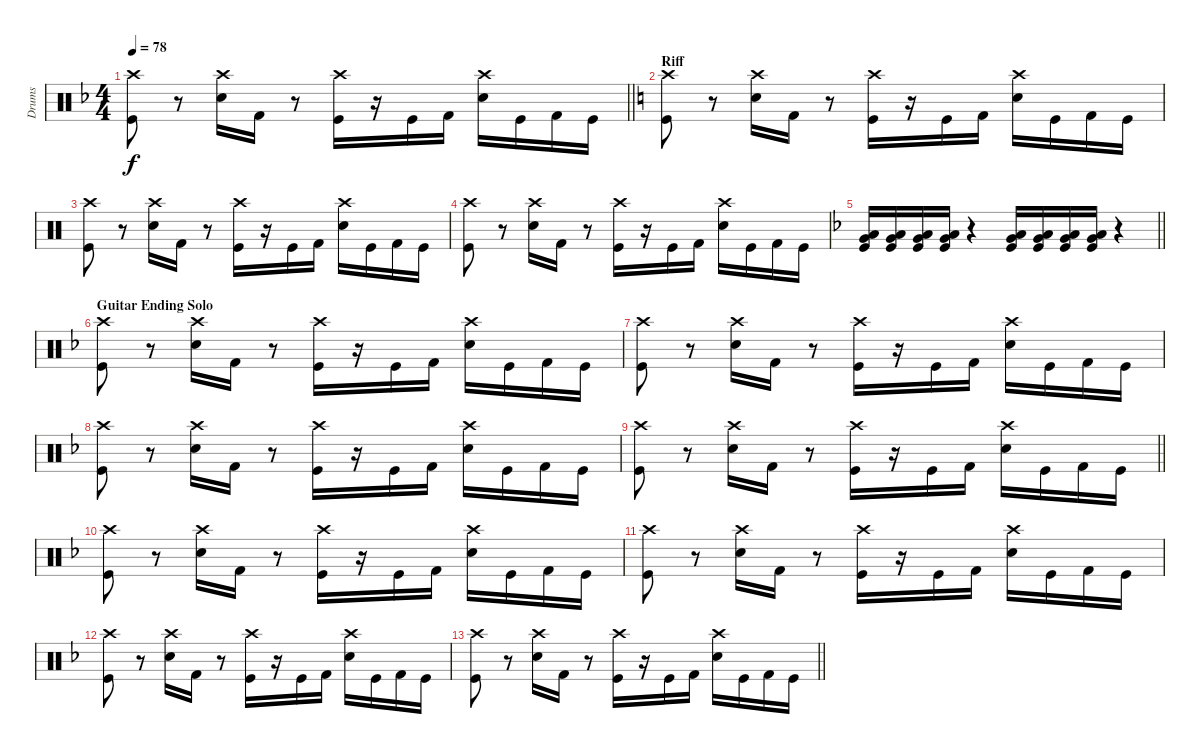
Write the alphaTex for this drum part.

\track ("Drums" "Drums") {instrument percussion}
\staff {score}
\articulation defaults
\ts (4 4)
\tempo 78
\clef neutral
\barLineRight lightlight
\ks f
("Crash high (hit)" "Kick (hit)").8{dy f} r.8 ("Crash high (hit)" "Snare (hit) 2").16 "Kick (hit) 2".16 r.8 ("Crash high (hit)" "Kick (hit)").16 r.16 "Kick (hit)".16 "Kick (hit) 2".16 ("Crash high (hit)" "Snare (hit) 2").16 "Kick (hit)".16 "Kick (hit) 2".16 "Kick (hit)".16 |
\section ("" "Riff")
\ks c
("Crash high (hit)" "Kick (hit)").8 r.8 ("Crash high (hit)" "Snare (hit) 2").16 "Kick (hit) 2".16 r.8 ("Crash high (hit)" "Kick (hit)").16 r.16 "Kick (hit)".16 "Kick (hit) 2".16 ("Crash high (hit)" "Snare (hit) 2").16 "Kick (hit)".16 "Kick (hit) 2".16 "Kick (hit)".16 |
("Crash high (hit)" "Kick (hit)").8 r.8 ("Crash high (hit)" "Snare (hit) 2").16 "Kick (hit) 2".16 r.8 ("Crash high (hit)" "Kick (hit)").16 r.16 "Kick (hit)".16 "Kick (hit) 2".16 ("Crash high (hit)" "Snare (hit) 2").16 "Kick (hit)".16 "Kick (hit) 2".16 "Kick (hit)".16 |
("Crash high (hit)" "Kick (hit)").8 r.8 ("Crash high (hit)" "Snare (hit) 2").16 "Kick (hit) 2".16 r.8 ("Crash high (hit)" "Kick (hit)").16 r.16 "Kick (hit)".16 "Kick (hit) 2".16 ("Crash high (hit)" "Snare (hit) 2").16 "Kick (hit)".16 "Kick (hit) 2".16 "Kick (hit)".16 |
\barLineRight lightlight
\ks f
("Very Low Tom (hit)" "Low Floor Tom (hit)" "Kick (hit)").16 ("Very Low Tom (hit)" "Low Floor Tom (hit)" "Kick (hit)").16 ("Very Low Tom (hit)" "Low Floor Tom (hit)" "Kick (hit)").16 ("Very Low Tom (hit)" "Low Floor Tom (hit)" "Kick (hit)").16 r.4 ("Very Low Tom (hit)" "Low Floor Tom (hit)" "Kick (hit)").16 ("Very Low Tom (hit)" "Low Floor Tom (hit)" "Kick (hit)").16 ("Very Low Tom (hit)" "Low Floor Tom (hit)" "Kick (hit)").16 ("Very Low Tom (hit)" "Low Floor Tom (hit)" "Kick (hit)").16 r.4 |
\section ("" "Guitar Ending Solo")
("Crash high (hit)" "Kick (hit)").8 r.8 ("Crash high (hit)" "Snare (hit) 2").16 "Kick (hit) 2".16 r.8 ("Crash high (hit)" "Kick (hit)").16 r.16 "Kick (hit)".16 "Kick (hit) 2".16 ("Crash high (hit)" "Snare (hit) 2").16 "Kick (hit)".16 "Kick (hit) 2".16 "Kick (hit)".16 |
("Crash high (hit)" "Kick (hit)").8 r.8 ("Crash high (hit)" "Snare (hit) 2").16 "Kick (hit) 2".16 r.8 ("Crash high (hit)" "Kick (hit)").16 r.16 "Kick (hit)".16 "Kick (hit) 2".16 ("Crash high (hit)" "Snare (hit) 2").16 "Kick (hit)".16 "Kick (hit) 2".16 "Kick (hit)".16 |
("Crash high (hit)" "Kick (hit)").8 r.8 ("Crash high (hit)" "Snare (hit) 2").16 "Kick (hit) 2".16 r.8 ("Crash high (hit)" "Kick (hit)").16 r.16 "Kick (hit)".16 "Kick (hit) 2".16 ("Crash high (hit)" "Snare (hit) 2").16 "Kick (hit)".16 "Kick (hit) 2".16 "Kick (hit)".16 |
\barLineRight lightlight
("Crash high (hit)" "Kick (hit)").8 r.8 ("Crash high (hit)" "Snare (hit) 2").16 "Kick (hit) 2".16 r.8 ("Crash high (hit)" "Kick (hit)").16 r.16 "Kick (hit)".16 "Kick (hit) 2".16 ("Crash high (hit)" "Snare (hit) 2").16 "Kick (hit)".16 "Kick (hit) 2".16 "Kick (hit)".16 |
("Crash high (hit)" "Kick (hit)").8 r.8 ("Crash high (hit)" "Snare (hit) 2").16 "Kick (hit) 2".16 r.8 ("Crash high (hit)" "Kick (hit)").16 r.16 "Kick (hit)".16 "Kick (hit) 2".16 ("Crash high (hit)" "Snare (hit) 2").16 "Kick (hit)".16 "Kick (hit) 2".16 "Kick (hit)".16 |
("Crash high (hit)" "Kick (hit)").8 r.8 ("Crash high (hit)" "Snare (hit) 2").16 "Kick (hit) 2".16 r.8 ("Crash high (hit)" "Kick (hit)").16 r.16 "Kick (hit)".16 "Kick (hit) 2".16 ("Crash high (hit)" "Snare (hit) 2").16 "Kick (hit)".16 "Kick (hit) 2".16 "Kick (hit)".16 |
("Crash high (hit)" "Kick (hit)").8 r.8 ("Crash high (hit)" "Snare (hit) 2").16 "Kick (hit) 2".16 r.8 ("Crash high (hit)" "Kick (hit)").16 r.16 "Kick (hit)".16 "Kick (hit) 2".16 ("Crash high (hit)" "Snare (hit) 2").16 "Kick (hit)".16 "Kick (hit) 2".16 "Kick (hit)".16 |
\barLineRight lightlight
("Crash high (hit)" "Kick (hit)").8 r.8 ("Crash high (hit)" "Snare (hit) 2").16 "Kick (hit) 2".16 r.8 ("Crash high (hit)" "Kick (hit)").16 r.16 "Kick (hit)".16 "Kick (hit) 2".16 ("Crash high (hit)" "Snare (hit) 2").16 "Kick (hit)".16 "Kick (hit) 2".16 "Kick (hit)".16
